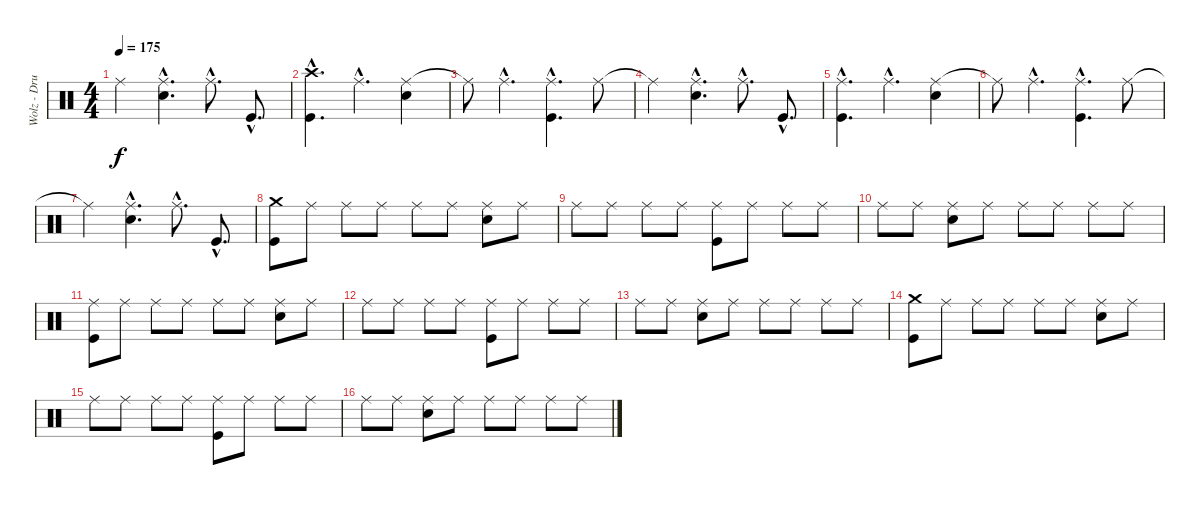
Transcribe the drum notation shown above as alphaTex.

\track ("Wolz - Drums" "Wolz - Dru") {instrument percussion}
\staff {score}
\articulation defaults
\ts (4 4)
\tempo 175
\clef neutral
\ks c "Ride (middle)"{t}.4{dy f}
("Ride (middle)"{hac} "Electric Snare (hit)"{hac}).4{d} "Ride (middle)"{hac}.8{d} "Kick (hit)"{hac}.8{d} |
("Crash high (hit)"{hac} "Kick (hit)"{hac}).4{d} "Ride (middle)"{hac}.4{d} ("Ride (middle)" "Electric Snare (hit)").4 |
"Ride (middle)"{t}.8 "Ride (middle)"{hac}.4{d} ("Ride (middle)"{hac} "Kick (hit)"{hac}).4{d} "Ride (middle)".8 |
"Ride (middle)"{t}.4 ("Ride (middle)"{hac} "Electric Snare (hit)"{hac}).4{d} "Ride (middle)"{hac}.8{d} "Kick (hit)"{hac}.8{d} |
("Ride (middle)"{hac} "Kick (hit)"{hac}).4{d} "Ride (middle)"{hac}.4{d} ("Ride (middle)" "Electric Snare (hit)").4 |
"Ride (middle)"{t}.8 "Ride (middle)"{hac}.4{d} ("Ride (middle)"{hac} "Kick (hit)"{hac}).4{d} "Ride (middle)".8 |
"Ride (middle)"{t}.4 ("Ride (middle)"{hac} "Electric Snare (hit)"{hac}).4{d} "Ride (middle)"{hac}.8{d} "Kick (hit)"{hac}.8{d} |
("Crash medium (hit)" "Kick (hit)").8 "Ride (middle)".8 "Ride (middle)".8 "Ride (middle)".8 "Ride (middle)".8 "Ride (middle)".8 ("Ride (middle)" "Electric Snare (hit)").8 "Ride (middle)".8 |
"Ride (middle)".8 "Ride (middle)".8 "Ride (middle)".8 "Ride (middle)".8 ("Ride (middle)" "Kick (hit)").8 "Ride (middle)".8 "Ride (middle)".8 "Ride (middle)".8 |
"Ride (middle)".8 "Ride (middle)".8 ("Ride (middle)" "Electric Snare (hit)").8 "Ride (middle)".8 "Ride (middle)".8 "Ride (middle)".8 "Ride (middle)".8 "Ride (middle)".8 |
("Ride (middle)" "Kick (hit)").8 "Ride (middle)".8 "Ride (middle)".8 "Ride (middle)".8 "Ride (middle)".8 "Ride (middle)".8 ("Ride (middle)" "Electric Snare (hit)").8 "Ride (middle)".8 |
"Ride (middle)".8 "Ride (middle)".8 "Ride (middle)".8 "Ride (middle)".8 ("Ride (middle)" "Kick (hit)").8 "Ride (middle)".8 "Ride (middle)".8 "Ride (middle)".8 |
"Ride (middle)".8 "Ride (middle)".8 ("Ride (middle)" "Electric Snare (hit)").8 "Ride (middle)".8 "Ride (middle)".8 "Ride (middle)".8 "Ride (middle)".8 "Ride (middle)".8 |
("Crash medium (hit)" "Kick (hit)").8 "Ride (middle)".8 "Ride (middle)".8 "Ride (middle)".8 "Ride (middle)".8 "Ride (middle)".8 ("Ride (middle)" "Electric Snare (hit)").8 "Ride (middle)".8 |
"Ride (middle)".8 "Ride (middle)".8 "Ride (middle)".8 "Ride (middle)".8 ("Ride (middle)" "Kick (hit)").8 "Ride (middle)".8 "Ride (middle)".8 "Ride (middle)".8 |
"Ride (middle)".8 "Ride (middle)".8 ("Ride (middle)" "Electric Snare (hit)").8 "Ride (middle)".8 "Ride (middle)".8 "Ride (middle)".8 "Ride (middle)".8 "Ride (middle)".8
